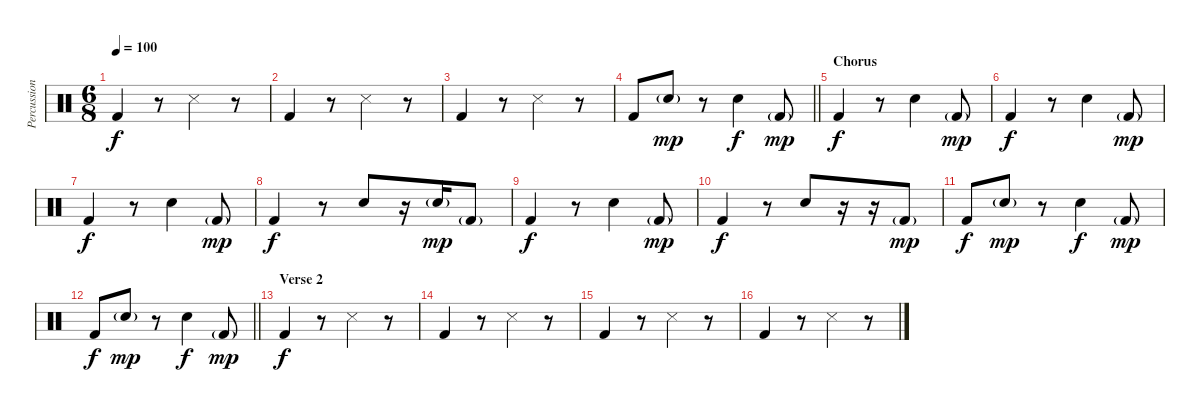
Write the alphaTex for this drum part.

\track ("Percussion" "Percussion") {instrument percussion}
\staff {score}
\articulation defaults
\ts (6 8)
\tempo 100
\clef neutral
\ks c "Kick (hit) 2".4{dy f}
r.8 "Snare (side stick) 3".4 r.8 |
"Kick (hit) 2".4 r.8 "Snare (side stick) 3".4 r.8 |
"Kick (hit) 2".4 r.8 "Snare (side stick) 3".4 r.8 |
\barLineRight lightlight "Kick (hit) 2".8 "Snare (hit) 2"{g}.8{dy mp}
r.8 "Snare (hit) 2".4{dy f} "Kick (hit) 2"{g}.8{dy mp} |
\section ("" "Chorus")
"Kick (hit) 2".4{dy f} r.8 "Snare (hit) 2".4 "Kick (hit) 2"{g}.8{dy mp} |
"Kick (hit) 2".4{dy f} r.8 "Snare (hit) 2".4 "Kick (hit) 2"{g}.8{dy mp} |
"Kick (hit) 2".4{dy f} r.8 "Snare (hit) 2".4 "Kick (hit) 2"{g}.8{dy mp} |
"Kick (hit) 2".4{dy f} r.8 "Snare (hit) 2".8 r.16 "Snare (hit) 2"{g}.16{dy mp} "Kick (hit) 2"{g}.8 |
"Kick (hit) 2".4{dy f} r.8 "Snare (hit) 2".4 "Kick (hit) 2"{g}.8{dy mp} |
"Kick (hit) 2".4{dy f} r.8 "Snare (hit) 2".8 r.16 r.16 "Kick (hit) 2"{g}.8{dy mp} |
"Kick (hit) 2".8{dy f} "Snare (hit) 2"{g}.8{dy mp} r.8 "Snare (hit) 2".4{dy f} "Kick (hit) 2"{g}.8{dy mp} |
\barLineRight lightlight "Kick (hit) 2".8{dy f} "Snare (hit) 2"{g}.8{dy mp}
r.8 "Snare (hit) 2".4{dy f} "Kick (hit) 2"{g}.8{dy mp} |
\section ("" "Verse 2")
"Kick (hit) 2".4{dy f} r.8 "Snare (side stick) 3".4 r.8 |
"Kick (hit) 2".4 r.8 "Snare (side stick) 3".4 r.8 |
"Kick (hit) 2".4 r.8 "Snare (side stick) 3".4 r.8 |
"Kick (hit) 2".4 r.8 "Snare (side stick) 3".4 r.8
